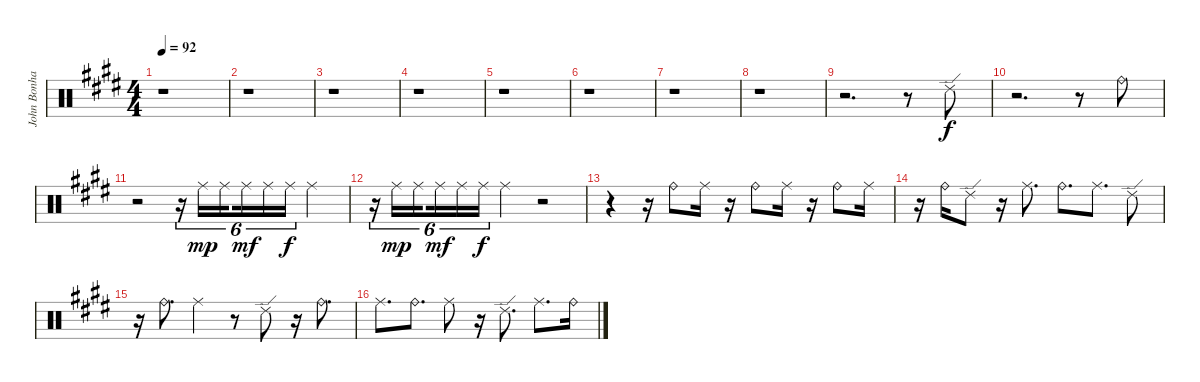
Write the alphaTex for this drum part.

\track ("John Bonham Percusive Kit" "John Bonha") {instrument percussion}
\staff {score}
\articulation defaults
\ts (4 4)
\tempo 92
\clef neutral
\ks e
r.1{dy f} |
r.1 |
r.1 |
r.1 |
r.1 |
r.1 |
r.1 |
r.1 |
r.2{d} r.8 "Ride (edge) 2".8 |
r.2{d} r.8 "Ride (bell)".8 |
r.2 r.16{tu (6 4)} "Ride (middle)".16{tu (6 4) dy mp} "Ride (middle)".16{tu (6 4) beam splitsecondary} "Ride (middle)".16{tu (6 4) dy mf} "Ride (middle)".16{tu (6 4)} "Ride (middle)".16{tu (6 4) dy f} "Ride (middle)".4 |
r.16{tu (6 4)} "Ride (middle)".16{tu (6 4) dy mp} "Ride (middle)".16{tu (6 4) beam splitsecondary} "Ride (middle)".16{tu (6 4) dy mf} "Ride (middle)".16{tu (6 4)} "Ride (middle)".16{tu (6 4) dy f} "Ride (middle)".4 r.2 |
r.4 r.16 "Ride (bell)".8 "Ride (middle)".16 r.16 "Ride (bell)".8 "Ride (middle)".16 r.16 "Ride (bell)".8 "Ride (middle)".16 |
r.16 "Ride (bell)".16 "Ride (edge) 2".8 r.16 "Ride (middle)".8{d} "Ride (bell)".8{d} "Ride (middle)".8{d} "Ride (edge) 2".8 |
r.16 "Ride (bell)".8{d} "Ride (middle)".4 r.8 "Ride (edge) 2".8 r.16 "Ride (bell)".8{d} |
"Ride (middle)".8{d} "Ride (bell)".8{d} "Ride (middle)".8 r.16 "Ride (edge) 2".8{d} "Ride (middle)".8{d} "Ride (bell)".16
